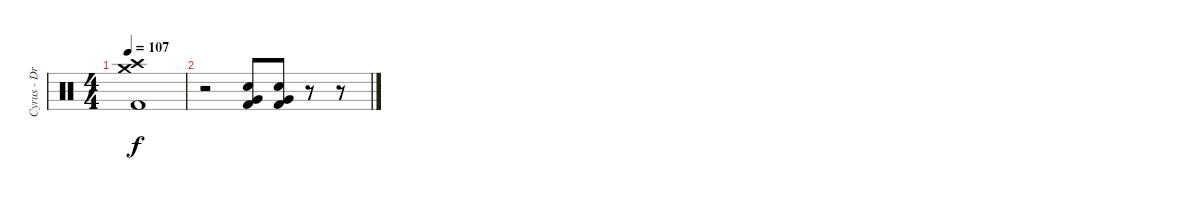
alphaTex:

\track ("Cyrus - Drums" "Cyrus - Dr") {instrument percussion}
\staff {score}
\articulation defaults
\ts (4 4)
\tempo 107
\clef neutral
\ks c
("Crash high (hit)" "Crash medium (hit)" "Kick (hit) 2").1{dy f} |
r.2 ("Very Low Tom (hit)" "Electric Snare (hit)" "Kick (hit) 2").8 ("Very Low Tom (hit)" "Electric Snare (hit)" "Kick (hit) 2").8 r.8 r.8
